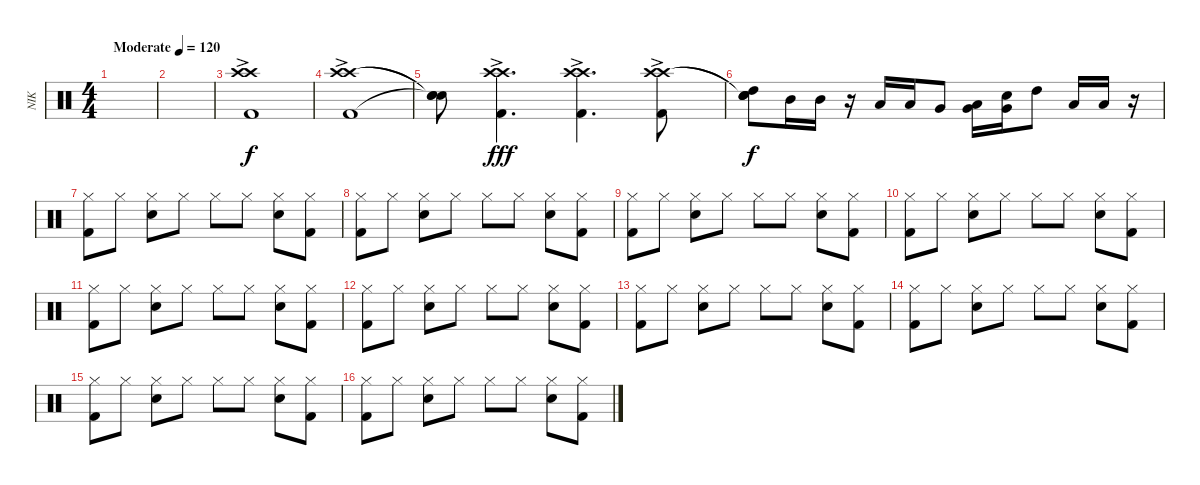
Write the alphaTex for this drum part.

\track ("NIK" "NIK") {instrument percussion}
\staff {score}
\articulation defaults
\ts (4 4)
\tempo (120 "Moderate")
\tempo 130
\tempo (120 "Moderate")
\clef neutral
\ks c
|
|
("Crash high (hit)"{ac} "Crash high (hit)"{ac} "Kick (hit) 2"{ac}).1 |
("Crash high (hit)"{ac} "Crash high (hit)"{ac} "Kick (hit) 2"{ac}).1 |
("Snare (hit)"{t} "Snare (hit)"{t} "Snare (hit)"{t}).8{dy f} ("Crash high (hit)"{ac} "Crash high (hit)"{ac} "Kick (hit) 2"{ac}).4{d dy fff} ("Crash high (hit)"{ac} "Crash high (hit)"{ac} "Kick (hit) 2"{ac}).4{d} ("Crash high (hit)"{ac} "Crash high (hit)"{ac} "Kick (hit) 2"{ac}).8 |
("Snare (hit)"{t} "Snare (hit)"{t} "High Tom (hit)" "Snare (hit)").8{dy f} "Mid Tom (hit)".16 "Mid Tom (hit)".16 r.16 "Low Tom (hit)".16 "Low Tom (hit)".16 "Very Low Tom (hit)".8 ("Low Floor Tom (hit)" "Very Low Tom (hit)").16 ("Electric Snare (hit)" "Very Low Tom (hit)").16 "High Tom (hit)".8 "Low Floor Tom (hit)".16 "Low Floor Tom (hit)".16 r.16 |
("Hi-Hat (closed)" "Kick (hit) 2").8 "Hi-Hat (closed)".8 ("Snare (hit) 2" "Hi-Hat (closed)").8 "Hi-Hat (closed)".8 "Hi-Hat (closed)".8 "Hi-Hat (closed)".8 ("Snare (hit) 2" "Hi-Hat (closed)").8 ("Hi-Hat (closed)" "Kick (hit) 2").8 |
("Hi-Hat (closed)" "Kick (hit) 2").8 "Hi-Hat (closed)".8 ("Snare (hit) 2" "Hi-Hat (closed)").8 "Hi-Hat (closed)".8 "Hi-Hat (closed)".8 "Hi-Hat (closed)".8 ("Snare (hit) 2" "Hi-Hat (closed)").8 ("Hi-Hat (closed)" "Kick (hit) 2").8 |
("Hi-Hat (closed)" "Kick (hit) 2").8 "Hi-Hat (closed)".8 ("Snare (hit) 2" "Hi-Hat (closed)").8 "Hi-Hat (closed)".8 "Hi-Hat (closed)".8 "Hi-Hat (closed)".8 ("Snare (hit) 2" "Hi-Hat (closed)").8 ("Hi-Hat (closed)" "Kick (hit) 2").8 |
("Hi-Hat (closed)" "Kick (hit) 2").8 "Hi-Hat (closed)".8 ("Snare (hit) 2" "Hi-Hat (closed)").8 "Hi-Hat (closed)".8 "Hi-Hat (closed)".8 "Hi-Hat (closed)".8 ("Snare (hit) 2" "Hi-Hat (closed)").8 ("Hi-Hat (closed)" "Kick (hit) 2").8 |
("Hi-Hat (closed)" "Kick (hit) 2").8 "Hi-Hat (closed)".8 ("Snare (hit) 2" "Hi-Hat (closed)").8 "Hi-Hat (closed)".8 "Hi-Hat (closed)".8 "Hi-Hat (closed)".8 ("Snare (hit) 2" "Hi-Hat (closed)").8 ("Hi-Hat (closed)" "Kick (hit) 2").8 |
("Hi-Hat (closed)" "Kick (hit) 2").8 "Hi-Hat (closed)".8 ("Snare (hit) 2" "Hi-Hat (closed)").8 "Hi-Hat (closed)".8 "Hi-Hat (closed)".8 "Hi-Hat (closed)".8 ("Snare (hit) 2" "Hi-Hat (closed)").8 ("Hi-Hat (closed)" "Kick (hit) 2").8 |
("Hi-Hat (closed)" "Kick (hit) 2").8 "Hi-Hat (closed)".8 ("Snare (hit) 2" "Hi-Hat (closed)").8 "Hi-Hat (closed)".8 "Hi-Hat (closed)".8 "Hi-Hat (closed)".8 ("Snare (hit) 2" "Hi-Hat (closed)").8 ("Hi-Hat (closed)" "Kick (hit) 2").8 |
("Hi-Hat (closed)" "Kick (hit) 2").8 "Hi-Hat (closed)".8 ("Snare (hit) 2" "Hi-Hat (closed)").8 "Hi-Hat (closed)".8 "Hi-Hat (closed)".8 "Hi-Hat (closed)".8 ("Snare (hit) 2" "Hi-Hat (closed)").8 ("Hi-Hat (closed)" "Kick (hit) 2").8 |
("Hi-Hat (closed)" "Kick (hit) 2").8 "Hi-Hat (closed)".8 ("Snare (hit) 2" "Hi-Hat (closed)").8 "Hi-Hat (closed)".8 "Hi-Hat (closed)".8 "Hi-Hat (closed)".8 ("Snare (hit) 2" "Hi-Hat (closed)").8 ("Hi-Hat (closed)" "Kick (hit) 2").8 |
("Hi-Hat (closed)" "Kick (hit) 2").8 "Hi-Hat (closed)".8 ("Snare (hit) 2" "Hi-Hat (closed)").8 "Hi-Hat (closed)".8 "Hi-Hat (closed)".8 "Hi-Hat (closed)".8 ("Snare (hit) 2" "Hi-Hat (closed)").8 ("Hi-Hat (closed)" "Kick (hit) 2").8
